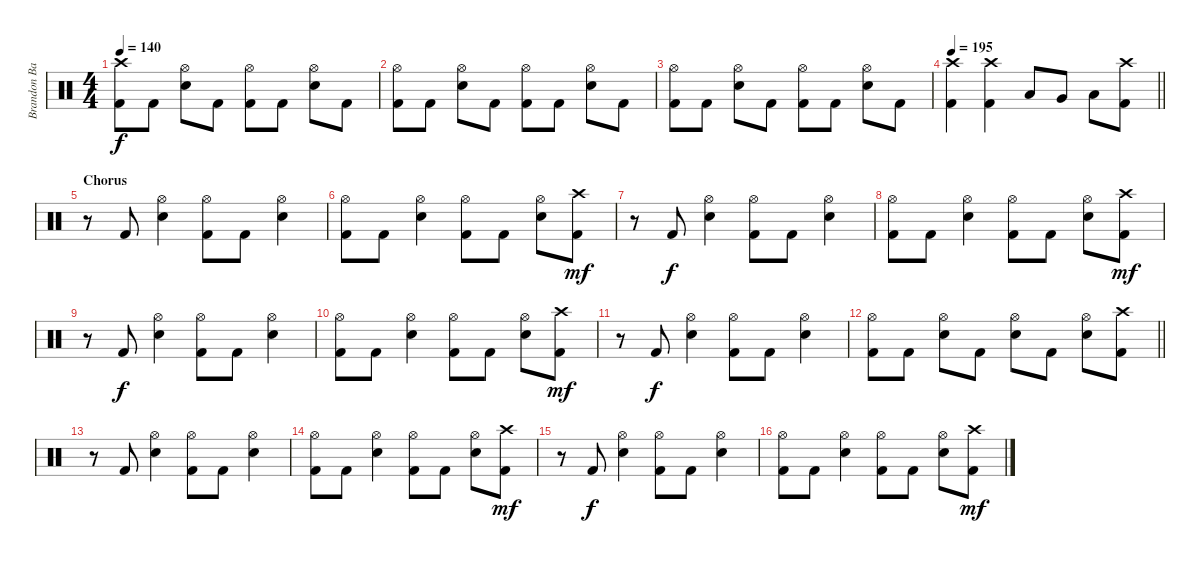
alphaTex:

\track ("Brandon Barnes - Drums" "Brandon Ba") {instrument percussion}
\staff {score}
\articulation defaults
\ts (4 4)
\tempo 140
\clef neutral
\ks c
("Kick (hit) 2" "Crash high (hit)").8{dy f} "Kick (hit) 2".8 ("Snare (hit) 2" "Hi-Hat (open)").8 "Kick (hit) 2".8 ("Kick (hit) 2" "Hi-Hat (open)").8 "Kick (hit) 2".8 ("Snare (hit) 2" "Hi-Hat (open)").8 "Kick (hit) 2".8 |
("Kick (hit) 2" "Hi-Hat (open)").8 "Kick (hit) 2".8 ("Snare (hit) 2" "Hi-Hat (open)").8 "Kick (hit) 2".8 ("Kick (hit) 2" "Hi-Hat (open)").8 "Kick (hit) 2".8 ("Snare (hit) 2" "Hi-Hat (open)").8 "Kick (hit) 2".8 |
("Kick (hit) 2" "Hi-Hat (open)").8 "Kick (hit) 2".8 ("Snare (hit) 2" "Hi-Hat (open)").8 "Kick (hit) 2".8 ("Kick (hit) 2" "Hi-Hat (open)").8 "Kick (hit) 2".8 ("Snare (hit) 2" "Hi-Hat (open)").8 "Kick (hit) 2".8 |
\tempo 195
\barLineRight lightlight
("Crash high (hit)" "Kick (hit) 2").4 ("Crash high (hit)" "Kick (hit) 2").4 "Low Tom (hit)".8 "Very Low Tom (hit)".8 "Low Floor Tom (hit)".8 ("Crash high (hit)" "Kick (hit) 2").8 |
\section ("" "Chorus")
r.8 "Kick (hit) 2".8 ("Snare (hit) 2" "Hi-Hat (open)").4 ("Kick (hit) 2" "Hi-Hat (open)").8 "Kick (hit) 2".8 ("Snare (hit) 2" "Hi-Hat (open)").4 |
("Kick (hit) 2" "Hi-Hat (open)").8 "Kick (hit) 2".8 ("Snare (hit) 2" "Hi-Hat (open)").4 ("Kick (hit) 2" "Hi-Hat (open)").8 "Kick (hit) 2".8 ("Snare (hit) 2" "Hi-Hat (open)").8 ("Kick (hit) 2" "Crash high (hit)").8{dy mf} |
r.8 "Kick (hit) 2".8{dy f} ("Snare (hit) 2" "Hi-Hat (open)").4 ("Kick (hit) 2" "Hi-Hat (open)").8 "Kick (hit) 2".8 ("Snare (hit) 2" "Hi-Hat (open)").4 |
("Kick (hit) 2" "Hi-Hat (open)").8 "Kick (hit) 2".8 ("Snare (hit) 2" "Hi-Hat (open)").4 ("Kick (hit) 2" "Hi-Hat (open)").8 "Kick (hit) 2".8 ("Snare (hit) 2" "Hi-Hat (open)").8 ("Kick (hit) 2" "Crash high (hit)").8{dy mf} |
r.8 "Kick (hit) 2".8{dy f} ("Snare (hit) 2" "Hi-Hat (open)").4 ("Kick (hit) 2" "Hi-Hat (open)").8 "Kick (hit) 2".8 ("Snare (hit) 2" "Hi-Hat (open)").4 |
("Kick (hit) 2" "Hi-Hat (open)").8 "Kick (hit) 2".8 ("Snare (hit) 2" "Hi-Hat (open)").4 ("Kick (hit) 2" "Hi-Hat (open)").8 "Kick (hit) 2".8 ("Snare (hit) 2" "Hi-Hat (open)").8 ("Kick (hit) 2" "Crash high (hit)").8{dy mf} |
r.8 "Kick (hit) 2".8{dy f} ("Snare (hit) 2" "Hi-Hat (open)").4 ("Kick (hit) 2" "Hi-Hat (open)").8 "Kick (hit) 2".8 ("Snare (hit) 2" "Hi-Hat (open)").4 |
\barLineRight lightlight
("Kick (hit) 2" "Hi-Hat (open)").8 "Kick (hit) 2".8 ("Snare (hit) 2" "Hi-Hat (open)").8 "Kick (hit) 2".8 ("Snare (hit) 2" "Hi-Hat (open)").8 "Kick (hit) 2".8 ("Snare (hit) 2" "Hi-Hat (open)").8 ("Kick (hit) 2" "Crash high (hit)").8 |
r.8 "Kick (hit) 2".8 ("Snare (hit) 2" "Hi-Hat (open)").4 ("Kick (hit) 2" "Hi-Hat (open)").8 "Kick (hit) 2".8 ("Snare (hit) 2" "Hi-Hat (open)").4 |
("Kick (hit) 2" "Hi-Hat (open)").8 "Kick (hit) 2".8 ("Snare (hit) 2" "Hi-Hat (open)").4 ("Kick (hit) 2" "Hi-Hat (open)").8 "Kick (hit) 2".8 ("Snare (hit) 2" "Hi-Hat (open)").8 ("Kick (hit) 2" "Crash high (hit)").8{dy mf} |
r.8 "Kick (hit) 2".8{dy f} ("Snare (hit) 2" "Hi-Hat (open)").4 ("Kick (hit) 2" "Hi-Hat (open)").8 "Kick (hit) 2".8 ("Snare (hit) 2" "Hi-Hat (open)").4 |
("Kick (hit) 2" "Hi-Hat (open)").8 "Kick (hit) 2".8 ("Snare (hit) 2" "Hi-Hat (open)").4 ("Kick (hit) 2" "Hi-Hat (open)").8 "Kick (hit) 2".8 ("Snare (hit) 2" "Hi-Hat (open)").8 ("Kick (hit) 2" "Crash high (hit)").8{dy mf}
